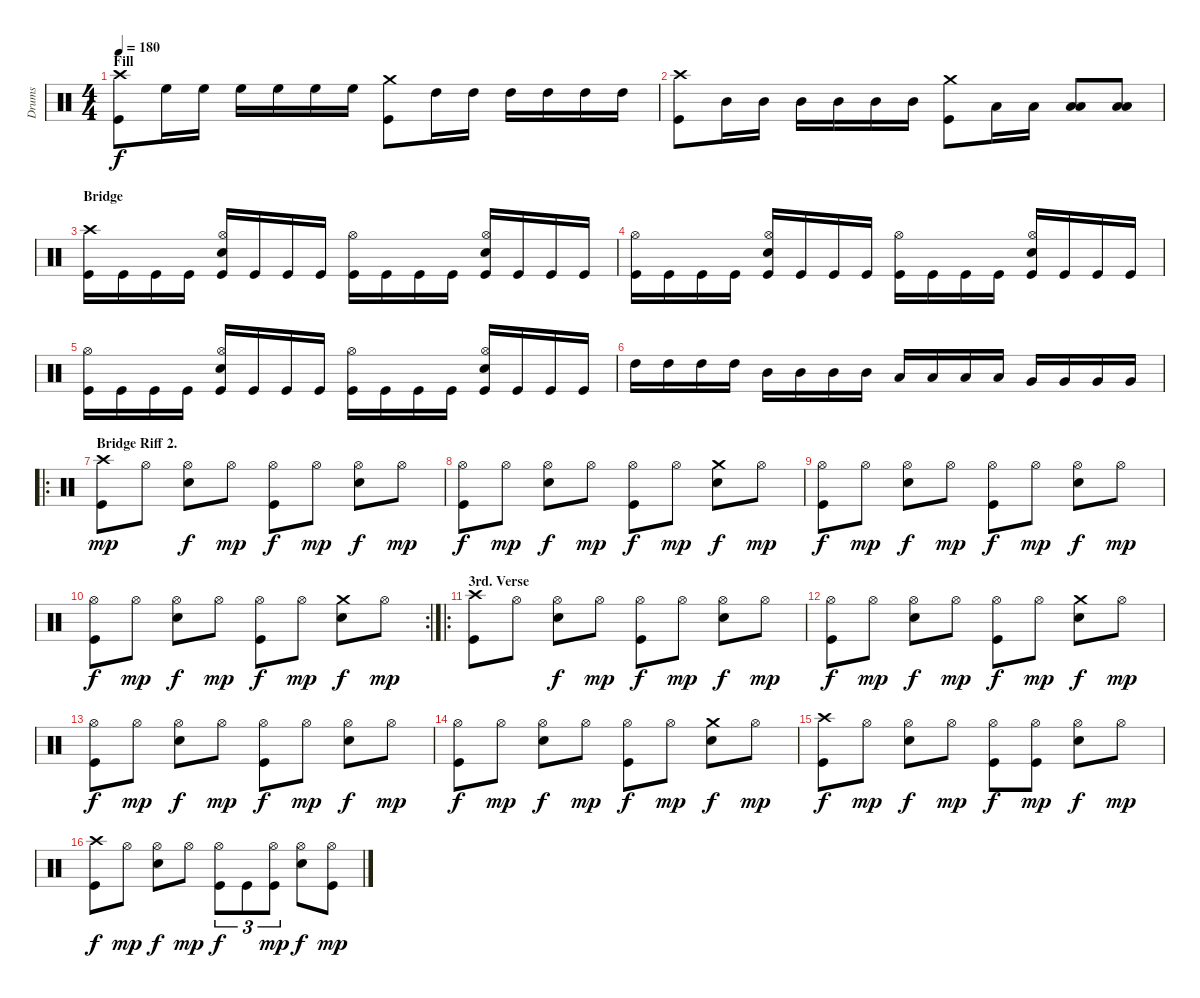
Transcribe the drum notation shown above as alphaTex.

\track ("Drums" "Drums") {instrument percussion}
\staff {score}
\articulation defaults
\ts (4 4)
\section ("" "Fill")
\tempo 180
\clef neutral
\ks c
("Crash high (hit)" "Kick (hit)").8{dy f} "High Floor Tom (hit)".16 "High Floor Tom (hit)".16 "High Floor Tom (hit)".16 "High Floor Tom (hit)".16 "High Floor Tom (hit)".16 "High Floor Tom (hit)".16 ("Crash medium (hit)" "Kick (hit)").8 "High Tom (hit)".16 "High Tom (hit)".16 "High Tom (hit)".16 "High Tom (hit)".16 "High Tom (hit)".16 "High Tom (hit)".16 |
("Crash high (hit)" "Kick (hit)").8 "Mid Tom (hit)".16 "Mid Tom (hit)".16 "Mid Tom (hit)".16 "Mid Tom (hit)".16 "Mid Tom (hit)".16 "Mid Tom (hit)".16 ("Crash medium (hit)" "Kick (hit)").8 "Low Tom (hit)".16 "Low Tom (hit)".16 ("Low Tom (hit)" "Low Floor Tom (hit)").8 ("Low Tom (hit)" "Low Floor Tom (hit)").8 |
\section ("" "Bridge")
("Crash high (hit)" "Kick (hit)").16 "Kick (hit)".16 "Kick (hit)".16 "Kick (hit)".16 ("Hi-Hat (open)" "Electric Snare (hit)" "Kick (hit)").16 "Kick (hit)".16 "Kick (hit)".16 "Kick (hit)".16 ("Hi-Hat (open)" "Kick (hit)").16 "Kick (hit)".16 "Kick (hit)".16 "Kick (hit)".16 ("Hi-Hat (open)" "Electric Snare (hit)" "Kick (hit)").16 "Kick (hit)".16 "Kick (hit)".16 "Kick (hit)".16 |
("Hi-Hat (open)" "Kick (hit)").16 "Kick (hit)".16 "Kick (hit)".16 "Kick (hit)".16 ("Hi-Hat (open)" "Electric Snare (hit)" "Kick (hit)").16 "Kick (hit)".16 "Kick (hit)".16 "Kick (hit)".16 ("Hi-Hat (open)" "Kick (hit)").16 "Kick (hit)".16 "Kick (hit)".16 "Kick (hit)".16 ("Hi-Hat (open)" "Electric Snare (hit)" "Kick (hit)").16 "Kick (hit)".16 "Kick (hit)".16 "Kick (hit)".16 |
("Hi-Hat (open)" "Kick (hit)").16 "Kick (hit)".16 "Kick (hit)".16 "Kick (hit)".16 ("Hi-Hat (open)" "Electric Snare (hit)" "Kick (hit)").16 "Kick (hit)".16 "Kick (hit)".16 "Kick (hit)".16 ("Hi-Hat (open)" "Kick (hit)").16 "Kick (hit)".16 "Kick (hit)".16 "Kick (hit)".16 ("Hi-Hat (open)" "Electric Snare (hit)" "Kick (hit)").16 "Kick (hit)".16 "Kick (hit)".16 "Kick (hit)".16 |
"High Tom (hit)".16 "High Tom (hit)".16 "High Tom (hit)".16 "High Tom (hit)".16 "Mid Tom (hit)".16 "Mid Tom (hit)".16 "Mid Tom (hit)".16 "Mid Tom (hit)".16 "Low Tom (hit)".16 "Low Tom (hit)".16 "Low Tom (hit)".16 "Low Tom (hit)".16 "Very Low Tom (hit)".16 "Very Low Tom (hit)".16 "Very Low Tom (hit)".16 "Very Low Tom (hit)".16 |
\ro
\section ("" "Bridge Riff 2.")
("Crash high (hit)" "Kick (hit)").8{dy mp} "Hi-Hat (open)".8 ("Hi-Hat (open)" "Electric Snare (hit)").8{dy f} "Hi-Hat (open)".8{dy mp} ("Hi-Hat (open)" "Kick (hit)").8{dy f} "Hi-Hat (open)".8{dy mp} ("Hi-Hat (open)" "Electric Snare (hit)").8{dy f} "Hi-Hat (open)".8{dy mp} |
("Hi-Hat (open)" "Kick (hit)").8{dy f} "Hi-Hat (open)".8{dy mp} ("Hi-Hat (open)" "Electric Snare (hit)").8{dy f} "Hi-Hat (open)".8{dy mp} ("Hi-Hat (open)" "Kick (hit)").8{dy f} "Hi-Hat (open)".8{dy mp} ("Crash medium (hit)" "Electric Snare (hit)").8{dy f} "Hi-Hat (open)".8{dy mp} |
("Hi-Hat (open)" "Kick (hit)").8{dy f} "Hi-Hat (open)".8{dy mp} ("Hi-Hat (open)" "Electric Snare (hit)").8{dy f} "Hi-Hat (open)".8{dy mp} ("Hi-Hat (open)" "Kick (hit)").8{dy f} "Hi-Hat (open)".8{dy mp} ("Hi-Hat (open)" "Electric Snare (hit)").8{dy f} "Hi-Hat (open)".8{dy mp} |
\rc 2
("Hi-Hat (open)" "Kick (hit)").8{dy f} "Hi-Hat (open)".8{dy mp} ("Hi-Hat (open)" "Electric Snare (hit)").8{dy f} "Hi-Hat (open)".8{dy mp} ("Hi-Hat (open)" "Kick (hit)").8{dy f} "Hi-Hat (open)".8{dy mp} ("Crash medium (hit)" "Electric Snare (hit)").8{dy f} "Hi-Hat (open)".8{dy mp} |
\ro
\section ("" "3rd. Verse")
("Crash high (hit)" "Kick (hit)").8 "Hi-Hat (open)".8 ("Hi-Hat (open)" "Electric Snare (hit)").8{dy f} "Hi-Hat (open)".8{dy mp} ("Hi-Hat (open)" "Kick (hit)").8{dy f} "Hi-Hat (open)".8{dy mp} ("Hi-Hat (open)" "Electric Snare (hit)").8{dy f} "Hi-Hat (open)".8{dy mp} |
("Hi-Hat (open)" "Kick (hit)").8{dy f} "Hi-Hat (open)".8{dy mp} ("Hi-Hat (open)" "Electric Snare (hit)").8{dy f} "Hi-Hat (open)".8{dy mp} ("Hi-Hat (open)" "Kick (hit)").8{dy f} "Hi-Hat (open)".8{dy mp} ("Crash medium (hit)" "Electric Snare (hit)").8{dy f} "Hi-Hat (open)".8{dy mp} |
("Hi-Hat (open)" "Kick (hit)").8{dy f} "Hi-Hat (open)".8{dy mp} ("Hi-Hat (open)" "Electric Snare (hit)").8{dy f} "Hi-Hat (open)".8{dy mp} ("Hi-Hat (open)" "Kick (hit)").8{dy f} "Hi-Hat (open)".8{dy mp} ("Hi-Hat (open)" "Electric Snare (hit)").8{dy f} "Hi-Hat (open)".8{dy mp} |
("Hi-Hat (open)" "Kick (hit)").8{dy f} "Hi-Hat (open)".8{dy mp} ("Hi-Hat (open)" "Electric Snare (hit)").8{dy f} "Hi-Hat (open)".8{dy mp} ("Hi-Hat (open)" "Kick (hit)").8{dy f} "Hi-Hat (open)".8{dy mp} ("Crash medium (hit)" "Electric Snare (hit)").8{dy f} "Hi-Hat (open)".8{dy mp} |
("Crash high (hit)" "Kick (hit)").8{dy f} "Hi-Hat (open)".8{dy mp} ("Hi-Hat (open)" "Electric Snare (hit)").8{dy f} "Hi-Hat (open)".8{dy mp} ("Hi-Hat (open)" "Kick (hit)").8{dy f} ("Hi-Hat (open)" "Kick (hit)").8{dy mp} ("Hi-Hat (open)" "Electric Snare (hit)").8{dy f} "Hi-Hat (open)".8{dy mp} |
("Crash high (hit)" "Kick (hit)").8{dy f} "Hi-Hat (open)".8{dy mp} ("Hi-Hat (open)" "Electric Snare (hit)").8{dy f} "Hi-Hat (open)".8{dy mp} ("Hi-Hat (open)" "Kick (hit)").8{tu (3 2) dy f} "Kick (hit)".8{tu (3 2)} ("Hi-Hat (open)" "Kick (hit)").8{tu (3 2) dy mp} ("Hi-Hat (open)" "Electric Snare (hit)").8{dy f} ("Hi-Hat (open)" "Kick (hit)").8{dy mp}
